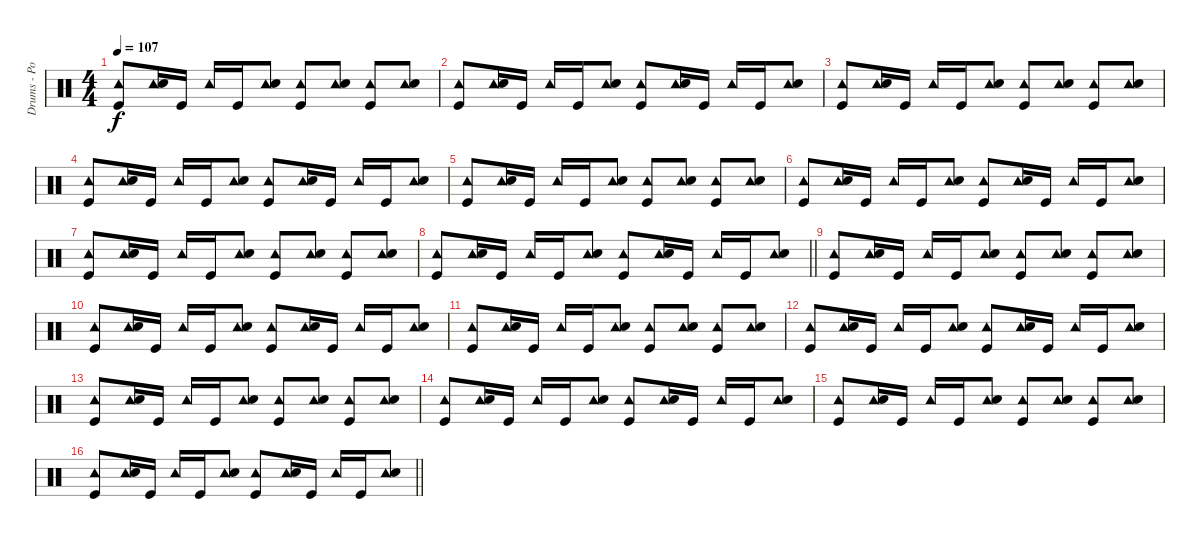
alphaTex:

\track ("Drums - Possibly M. Shinoda" "Drums - Po") {instrument percussion}
\staff {score}
\articulation defaults
\ts (4 4)
\tempo 107
\clef neutral
\ks c
("Tambourine (hit)" "Kick (hit)").8{dy f} ("Tambourine (hit)" "Electric Snare (hit)").16 "Kick (hit)".16 "Tambourine (hit)".16 "Kick (hit)".16 ("Tambourine (hit)" "Electric Snare (hit)").8 ("Tambourine (hit)" "Kick (hit)").8 ("Tambourine (hit)" "Electric Snare (hit)").8 ("Tambourine (hit)" "Kick (hit)").8 ("Tambourine (hit)" "Electric Snare (hit)").8 |
("Tambourine (hit)" "Kick (hit)").8 ("Tambourine (hit)" "Electric Snare (hit)").16 "Kick (hit)".16 "Tambourine (hit)".16 "Kick (hit)".16 ("Tambourine (hit)" "Electric Snare (hit)").8 ("Tambourine (hit)" "Kick (hit)").8 ("Tambourine (hit)" "Electric Snare (hit)").16 "Kick (hit)".16 "Tambourine (hit)".16 "Kick (hit)".16 ("Tambourine (hit)" "Electric Snare (hit)").8 |
("Tambourine (hit)" "Kick (hit)").8 ("Tambourine (hit)" "Electric Snare (hit)").16 "Kick (hit)".16 "Tambourine (hit)".16 "Kick (hit)".16 ("Tambourine (hit)" "Electric Snare (hit)").8 ("Tambourine (hit)" "Kick (hit)").8 ("Tambourine (hit)" "Electric Snare (hit)").8 ("Tambourine (hit)" "Kick (hit)").8 ("Tambourine (hit)" "Electric Snare (hit)").8 |
("Tambourine (hit)" "Kick (hit)").8 ("Tambourine (hit)" "Electric Snare (hit)").16 "Kick (hit)".16 "Tambourine (hit)".16 "Kick (hit)".16 ("Tambourine (hit)" "Electric Snare (hit)").8 ("Tambourine (hit)" "Kick (hit)").8 ("Tambourine (hit)" "Electric Snare (hit)").16 "Kick (hit)".16 "Tambourine (hit)".16 "Kick (hit)".16 ("Tambourine (hit)" "Electric Snare (hit)").8 |
("Tambourine (hit)" "Kick (hit)").8 ("Tambourine (hit)" "Electric Snare (hit)").16 "Kick (hit)".16 "Tambourine (hit)".16 "Kick (hit)".16 ("Tambourine (hit)" "Electric Snare (hit)").8 ("Tambourine (hit)" "Kick (hit)").8 ("Tambourine (hit)" "Electric Snare (hit)").8 ("Tambourine (hit)" "Kick (hit)").8 ("Tambourine (hit)" "Electric Snare (hit)").8 |
("Tambourine (hit)" "Kick (hit)").8 ("Tambourine (hit)" "Electric Snare (hit)").16 "Kick (hit)".16 "Tambourine (hit)".16 "Kick (hit)".16 ("Tambourine (hit)" "Electric Snare (hit)").8 ("Tambourine (hit)" "Kick (hit)").8 ("Tambourine (hit)" "Electric Snare (hit)").16 "Kick (hit)".16 "Tambourine (hit)".16 "Kick (hit)".16 ("Tambourine (hit)" "Electric Snare (hit)").8 |
("Tambourine (hit)" "Kick (hit)").8 ("Tambourine (hit)" "Electric Snare (hit)").16 "Kick (hit)".16 "Tambourine (hit)".16 "Kick (hit)".16 ("Tambourine (hit)" "Electric Snare (hit)").8 ("Tambourine (hit)" "Kick (hit)").8 ("Tambourine (hit)" "Electric Snare (hit)").8 ("Tambourine (hit)" "Kick (hit)").8 ("Tambourine (hit)" "Electric Snare (hit)").8 |
\barLineRight lightlight
("Tambourine (hit)" "Kick (hit)").8 ("Tambourine (hit)" "Electric Snare (hit)").16 "Kick (hit)".16 "Tambourine (hit)".16 "Kick (hit)".16 ("Tambourine (hit)" "Electric Snare (hit)").8 ("Tambourine (hit)" "Kick (hit)").8 ("Tambourine (hit)" "Electric Snare (hit)").16 "Kick (hit)".16 "Tambourine (hit)".16 "Kick (hit)".16 ("Tambourine (hit)" "Electric Snare (hit)").8 |
("Tambourine (hit)" "Kick (hit)").8 ("Tambourine (hit)" "Electric Snare (hit)").16 "Kick (hit)".16 "Tambourine (hit)".16 "Kick (hit)".16 ("Tambourine (hit)" "Electric Snare (hit)").8 ("Tambourine (hit)" "Kick (hit)").8 ("Tambourine (hit)" "Electric Snare (hit)").8 ("Tambourine (hit)" "Kick (hit)").8 ("Tambourine (hit)" "Electric Snare (hit)").8 |
("Tambourine (hit)" "Kick (hit)").8 ("Tambourine (hit)" "Electric Snare (hit)").16 "Kick (hit)".16 "Tambourine (hit)".16 "Kick (hit)".16 ("Tambourine (hit)" "Electric Snare (hit)").8 ("Tambourine (hit)" "Kick (hit)").8 ("Tambourine (hit)" "Electric Snare (hit)").16 "Kick (hit)".16 "Tambourine (hit)".16 "Kick (hit)".16 ("Tambourine (hit)" "Electric Snare (hit)").8 |
("Tambourine (hit)" "Kick (hit)").8 ("Tambourine (hit)" "Electric Snare (hit)").16 "Kick (hit)".16 "Tambourine (hit)".16 "Kick (hit)".16 ("Tambourine (hit)" "Electric Snare (hit)").8 ("Tambourine (hit)" "Kick (hit)").8 ("Tambourine (hit)" "Electric Snare (hit)").8 ("Tambourine (hit)" "Kick (hit)").8 ("Tambourine (hit)" "Electric Snare (hit)").8 |
("Tambourine (hit)" "Kick (hit)").8 ("Tambourine (hit)" "Electric Snare (hit)").16 "Kick (hit)".16 "Tambourine (hit)".16 "Kick (hit)".16 ("Tambourine (hit)" "Electric Snare (hit)").8 ("Tambourine (hit)" "Kick (hit)").8 ("Tambourine (hit)" "Electric Snare (hit)").16 "Kick (hit)".16 "Tambourine (hit)".16 "Kick (hit)".16 ("Tambourine (hit)" "Electric Snare (hit)").8 |
("Tambourine (hit)" "Kick (hit)").8 ("Tambourine (hit)" "Electric Snare (hit)").16 "Kick (hit)".16 "Tambourine (hit)".16 "Kick (hit)".16 ("Tambourine (hit)" "Electric Snare (hit)").8 ("Tambourine (hit)" "Kick (hit)").8 ("Tambourine (hit)" "Electric Snare (hit)").8 ("Tambourine (hit)" "Kick (hit)").8 ("Tambourine (hit)" "Electric Snare (hit)").8 |
("Tambourine (hit)" "Kick (hit)").8 ("Tambourine (hit)" "Electric Snare (hit)").16 "Kick (hit)".16 "Tambourine (hit)".16 "Kick (hit)".16 ("Tambourine (hit)" "Electric Snare (hit)").8 ("Tambourine (hit)" "Kick (hit)").8 ("Tambourine (hit)" "Electric Snare (hit)").16 "Kick (hit)".16 "Tambourine (hit)".16 "Kick (hit)".16 ("Tambourine (hit)" "Electric Snare (hit)").8 |
("Tambourine (hit)" "Kick (hit)").8 ("Tambourine (hit)" "Electric Snare (hit)").16 "Kick (hit)".16 "Tambourine (hit)".16 "Kick (hit)".16 ("Tambourine (hit)" "Electric Snare (hit)").8 ("Tambourine (hit)" "Kick (hit)").8 ("Tambourine (hit)" "Electric Snare (hit)").8 ("Tambourine (hit)" "Kick (hit)").8 ("Tambourine (hit)" "Electric Snare (hit)").8 |
\barLineRight lightlight
("Tambourine (hit)" "Kick (hit)").8 ("Tambourine (hit)" "Electric Snare (hit)").16 "Kick (hit)".16 "Tambourine (hit)".16 "Kick (hit)".16 ("Tambourine (hit)" "Electric Snare (hit)").8 ("Tambourine (hit)" "Kick (hit)").8 ("Tambourine (hit)" "Electric Snare (hit)").16 "Kick (hit)".16 "Tambourine (hit)".16 "Kick (hit)".16 ("Tambourine (hit)" "Electric Snare (hit)").8
